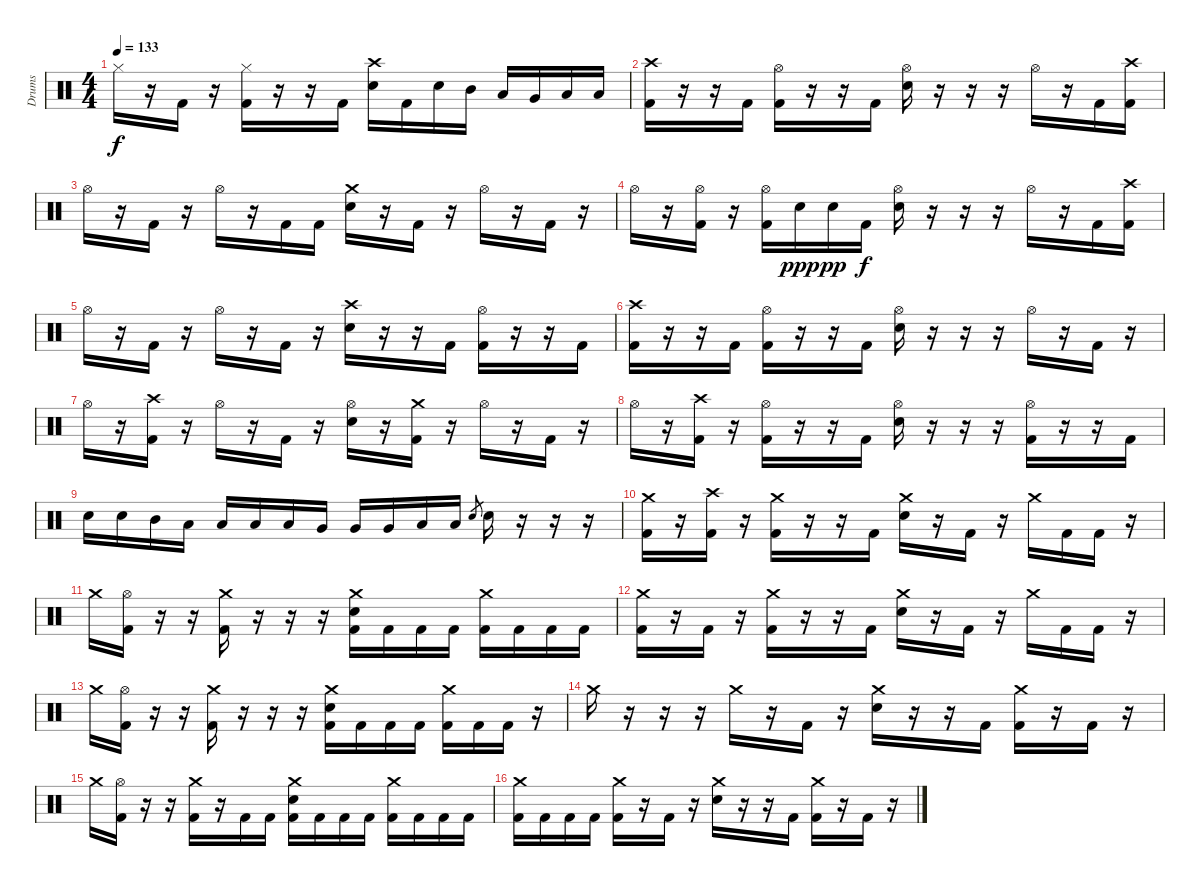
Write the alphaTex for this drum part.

\track ("Drums" "Drums") {instrument percussion}
\staff {score}
\articulation defaults
\ts (4 4)
\tempo 133
\clef neutral
\ks c "Hi-Hat (closed)".16{dy f}
r.16 "Kick (hit) 2".16 r.16 ("Hi-Hat (closed)" "Kick (hit) 2").16 r.16 r.16 "Kick (hit) 2".16 ("Crash high (hit)" "Snare (hit) 2").16 "Kick (hit) 2".16 "Snare (hit) 2".16 "Mid Tom (hit)".16 "Low Tom (hit)".16 "Very Low Tom (hit)".16 "Low Tom (hit)".16 "Low Floor Tom (hit)".16 |
("Crash high (hit)" "Kick (hit) 2").16 r.16 r.16 "Kick (hit) 2".16 ("Hi-Hat (open)" "Kick (hit) 2").16 r.16 r.16 "Kick (hit) 2".16 ("Hi-Hat (open)" "Snare (hit) 2").16 r.16 r.16 r.16 "Hi-Hat (open)".16 r.16 "Kick (hit) 2".16 ("Crash high (hit)" "Kick (hit) 2").16 |
"Hi-Hat (open)".16 r.16 "Kick (hit) 2".16 r.16 "Hi-Hat (open)".16 r.16 "Kick (hit) 2".16 "Kick (hit) 2".16 ("Crash medium (hit)" "Snare (hit) 2").16 r.16 "Kick (hit) 2".16 r.16 "Hi-Hat (open)".16 r.16 "Kick (hit) 2".16 r.16 |
"Hi-Hat (open)".16 r.16 ("Hi-Hat (open)" "Kick (hit) 2").16 r.16 ("Hi-Hat (open)" "Kick (hit) 2").16 "Snare (hit) 2".16{dy ppp} "Snare (hit) 2".16{dy pp} "Kick (hit) 2".16{dy f} ("Hi-Hat (open)" "Snare (hit) 2").16 r.16 r.16 r.16 "Hi-Hat (open)".16 r.16 "Kick (hit) 2".16 ("Crash high (hit)" "Kick (hit) 2").16 |
"Hi-Hat (open)".16 r.16 "Kick (hit) 2".16 r.16 "Hi-Hat (open)".16 r.16 "Kick (hit) 2".16 r.16 ("Crash high (hit)" "Snare (hit) 2").16 r.16 r.16 "Kick (hit) 2".16 ("Hi-Hat (open)" "Kick (hit) 2").16 r.16 r.16 "Kick (hit) 2".16 |
("Crash high (hit)" "Kick (hit) 2").16 r.16 r.16 "Kick (hit) 2".16 ("Hi-Hat (open)" "Kick (hit) 2").16 r.16 r.16 "Kick (hit) 2".16 ("Hi-Hat (open)" "Snare (hit) 2").16 r.16 r.16 r.16 "Hi-Hat (open)".16 r.16 "Kick (hit) 2".16 r.16 |
"Hi-Hat (open)".16 r.16 ("Crash high (hit)" "Kick (hit) 2").16 r.16 "Hi-Hat (open)".16 r.16 "Kick (hit) 2".16 r.16 ("Hi-Hat (open)" "Snare (hit) 2").16 r.16 ("Crash medium (hit)" "Kick (hit) 2").16 r.16 "Hi-Hat (open)".16 r.16 "Kick (hit) 2".16 r.16 |
"Hi-Hat (open)".16 r.16 ("Crash high (hit)" "Kick (hit) 2").16 r.16 ("Hi-Hat (open)" "Kick (hit) 2").16 r.16 r.16 "Kick (hit) 2".16 ("Hi-Hat (open)" "Snare (hit) 2").16 r.16 r.16 r.16 ("Hi-Hat (open)" "Kick (hit) 2").16 r.16 r.16 "Kick (hit) 2".16 |
"Snare (hit) 2".16 "Snare (hit) 2".16 "Mid Tom (hit)".16 "Low Tom (hit)".16 "Low Tom (hit)".16 "Low Tom (hit)".16 "Low Tom (hit)".16 "Very Low Tom (hit)".16 "Very Low Tom (hit)".16 "Very Low Tom (hit)".16 "Low Floor Tom (hit)".16 "Low Floor Tom (hit)".16 "Snare (hit) 2".8{gr} "Snare (hit) 2".16 r.16 r.16 r.16 |
("Crash medium (hit)" "Kick (hit) 2").16 r.16 ("Crash high (hit)" "Kick (hit) 2").16 r.16 ("Crash medium (hit)" "Kick (hit) 2").16 r.16 r.16 "Kick (hit) 2".16 ("Crash medium (hit)" "Snare (hit) 2").16 r.16 "Kick (hit) 2".16 r.16 "Crash medium (hit)".16 "Kick (hit) 2".16 "Kick (hit) 2".16 r.16 |
"Crash medium (hit)".16 ("Hi-Hat (open)" "Kick (hit) 2").16 r.16 r.16 ("Crash medium (hit)" "Kick (hit) 2").16 r.16 r.16 r.16 ("Crash medium (hit)" "Snare (hit) 2" "Kick (hit) 2").16 "Kick (hit) 2".16 "Kick (hit) 2".16 "Kick (hit) 2".16 ("Crash medium (hit)" "Kick (hit) 2").16 "Kick (hit) 2".16 "Kick (hit) 2".16 "Kick (hit) 2".16 |
("Crash medium (hit)" "Kick (hit) 2").16 r.16 "Kick (hit) 2".16 r.16 ("Crash medium (hit)" "Kick (hit) 2").16 r.16 r.16 "Kick (hit) 2".16 ("Crash medium (hit)" "Snare (hit) 2").16 r.16 "Kick (hit) 2".16 r.16 "Crash medium (hit)".16 "Kick (hit) 2".16 "Kick (hit) 2".16 r.16 |
"Crash medium (hit)".16 ("Hi-Hat (open)" "Kick (hit) 2").16 r.16 r.16 ("Crash medium (hit)" "Kick (hit) 2").16 r.16 r.16 r.16 ("Crash medium (hit)" "Snare (hit) 2" "Kick (hit) 2").16 "Kick (hit) 2".16 "Kick (hit) 2".16 "Kick (hit) 2".16 ("Crash medium (hit)" "Kick (hit) 2").16 "Kick (hit) 2".16 "Kick (hit) 2".16 r.16 |
"Crash medium (hit)".16 r.16 r.16 r.16 "Crash medium (hit)".16 r.16 "Kick (hit) 2".16 r.16 ("Crash medium (hit)" "Snare (hit) 2").16 r.16 r.16 "Kick (hit) 2".16 ("Crash medium (hit)" "Kick (hit) 2").16 r.16 "Kick (hit) 2".16 r.16 |
"Crash medium (hit)".16 ("Hi-Hat (open)" "Kick (hit) 2").16 r.16 r.16 ("Crash medium (hit)" "Kick (hit) 2").16 r.16 "Kick (hit) 2".16 "Kick (hit) 2".16 ("Crash medium (hit)" "Snare (hit) 2" "Kick (hit) 2").16 "Kick (hit) 2".16 "Kick (hit) 2".16 "Kick (hit) 2".16 ("Crash medium (hit)" "Kick (hit) 2").16 "Kick (hit) 2".16 "Kick (hit) 2".16 "Kick (hit) 2".16 |
("Crash medium (hit)" "Kick (hit) 2").16 "Kick (hit) 2".16 "Kick (hit) 2".16 "Kick (hit) 2".16 ("Crash medium (hit)" "Kick (hit) 2").16 r.16 "Kick (hit) 2".16 r.16 ("Crash medium (hit)" "Snare (hit) 2").16 r.16 r.16 "Kick (hit) 2".16 ("Crash medium (hit)" "Kick (hit) 2").16 r.16 "Kick (hit) 2".16 r.16
